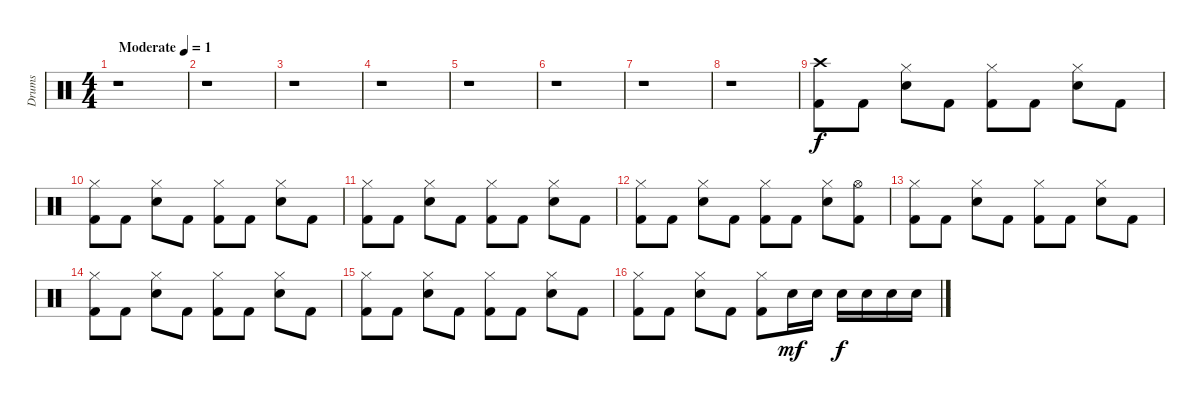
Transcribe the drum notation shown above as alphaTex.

\track ("Drums" "Drums") {instrument percussion}
\staff {score}
\articulation defaults
\ts (4 4)
\tempo (1 "Moderate")
\clef neutral
\ks c
r.1{dy f} |
r.1 |
r.1 |
r.1 |
r.1 |
r.1 |
r.1 |
r.1 |
("Crash high (hit)" "Kick (hit) 2").8 "Kick (hit) 2".8 ("Snare (hit) 2" "Hi-Hat (closed)").8 "Kick (hit) 2".8 ("Kick (hit) 2" "Hi-Hat (closed)").8 "Kick (hit) 2".8 ("Snare (hit) 2" "Hi-Hat (closed)").8 "Kick (hit) 2".8 |
("Kick (hit) 2" "Hi-Hat (closed)").8 "Kick (hit) 2".8 ("Snare (hit) 2" "Hi-Hat (closed)").8 "Kick (hit) 2".8 ("Kick (hit) 2" "Hi-Hat (closed)").8 "Kick (hit) 2".8 ("Snare (hit) 2" "Hi-Hat (closed)").8 "Kick (hit) 2".8 |
("Kick (hit) 2" "Hi-Hat (closed)").8 "Kick (hit) 2".8 ("Snare (hit) 2" "Hi-Hat (closed)").8 "Kick (hit) 2".8 ("Kick (hit) 2" "Hi-Hat (closed)").8 "Kick (hit) 2".8 ("Snare (hit) 2" "Hi-Hat (closed)").8 "Kick (hit) 2".8 |
("Kick (hit) 2" "Hi-Hat (closed)").8 "Kick (hit) 2".8 ("Snare (hit) 2" "Hi-Hat (closed)").8 "Kick (hit) 2".8 ("Kick (hit) 2" "Hi-Hat (closed)").8 "Kick (hit) 2".8 ("Snare (hit) 2" "Hi-Hat (closed)").8 ("Hi-Hat (open)" "Kick (hit) 2").8 |
("Kick (hit) 2" "Hi-Hat (closed)").8 "Kick (hit) 2".8 ("Snare (hit) 2" "Hi-Hat (closed)").8 "Kick (hit) 2".8 ("Kick (hit) 2" "Hi-Hat (closed)").8 "Kick (hit) 2".8 ("Snare (hit) 2" "Hi-Hat (closed)").8 "Kick (hit) 2".8 |
("Kick (hit) 2" "Hi-Hat (closed)").8 "Kick (hit) 2".8 ("Snare (hit) 2" "Hi-Hat (closed)").8 "Kick (hit) 2".8 ("Kick (hit) 2" "Hi-Hat (closed)").8 "Kick (hit) 2".8 ("Snare (hit) 2" "Hi-Hat (closed)").8 "Kick (hit) 2".8 |
("Kick (hit) 2" "Hi-Hat (closed)").8 "Kick (hit) 2".8 ("Snare (hit) 2" "Hi-Hat (closed)").8 "Kick (hit) 2".8 ("Kick (hit) 2" "Hi-Hat (closed)").8 "Kick (hit) 2".8 ("Snare (hit) 2" "Hi-Hat (closed)").8 "Kick (hit) 2".8 |
("Kick (hit) 2" "Hi-Hat (closed)").8 "Kick (hit) 2".8 ("Snare (hit) 2" "Hi-Hat (closed)").8 "Kick (hit) 2".8 ("Kick (hit) 2" "Hi-Hat (closed)").8 "Snare (hit) 2".16{dy mf} "Snare (hit) 2".16 "Snare (hit) 2".16{dy f} "Snare (hit) 2".16 "Snare (hit) 2".16 "Snare (hit) 2".16
